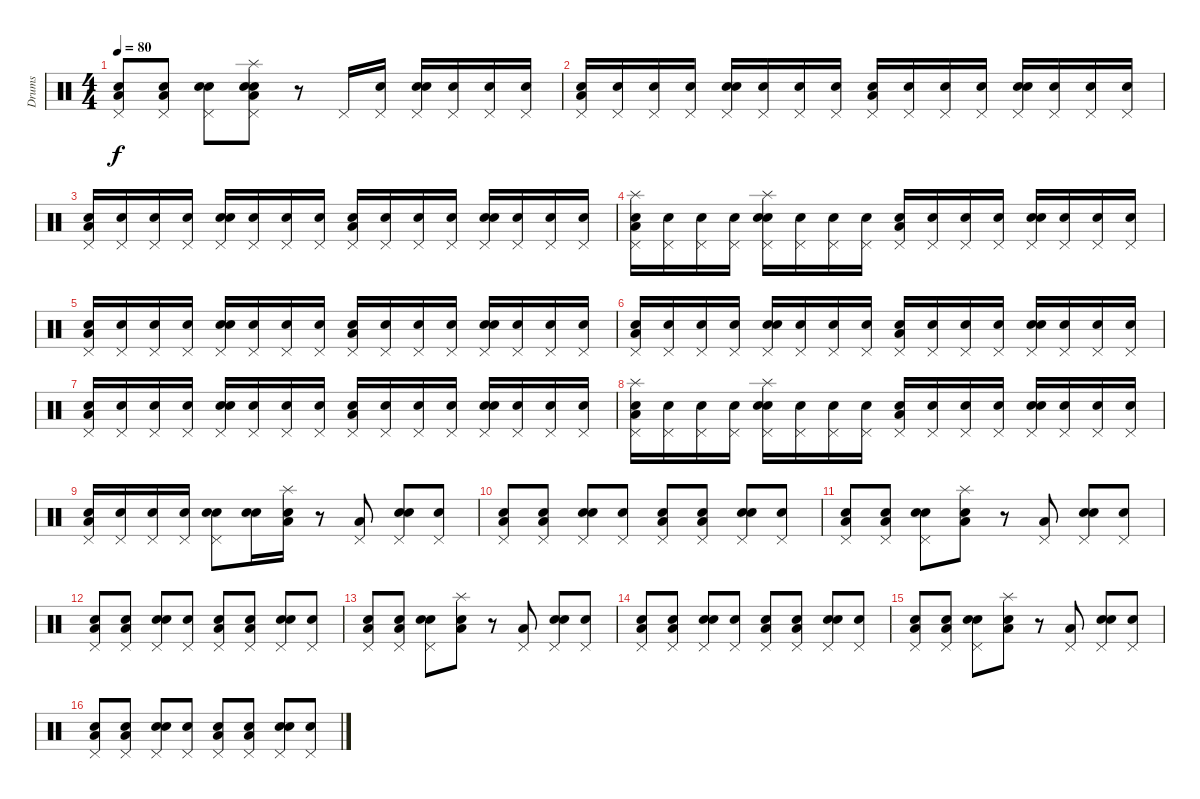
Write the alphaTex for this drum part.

\track ("Drums" "Drums") {instrument percussion}
\staff {score}
\articulation defaults
\ts (4 4)
\tempo 80
\clef neutral
\ks c
("Snare (hit)" "Low Floor Tom (hit)" "Pedal Hi-Hat (hit)").8{dy f} ("Snare (hit)" "Low Floor Tom (hit)" "Pedal Hi-Hat (hit)").8 ("Snare (hit)" "Electric Snare (hit)" "Pedal Hi-Hat (hit)").8 ("Snare (hit)" "Electric Snare (hit)" "Low Floor Tom (hit)" "Pedal Hi-Hat (hit)" "Splash (hit)").8 r.8 "Pedal Hi-Hat (hit)".16 ("Snare (hit)" "Pedal Hi-Hat (hit)").16 ("Snare (hit)" "Electric Snare (hit)" "Pedal Hi-Hat (hit)").16 ("Snare (hit)" "Pedal Hi-Hat (hit)").16 ("Snare (hit)" "Pedal Hi-Hat (hit)").16 ("Snare (hit)" "Pedal Hi-Hat (hit)").16 |
("Snare (hit)" "Low Floor Tom (hit)" "Pedal Hi-Hat (hit)").16 ("Snare (hit)" "Pedal Hi-Hat (hit)").16 ("Snare (hit)" "Pedal Hi-Hat (hit)").16 ("Snare (hit)" "Pedal Hi-Hat (hit)").16 ("Snare (hit)" "Electric Snare (hit)" "Pedal Hi-Hat (hit)").16 ("Snare (hit)" "Pedal Hi-Hat (hit)").16 ("Snare (hit)" "Pedal Hi-Hat (hit)").16 ("Snare (hit)" "Pedal Hi-Hat (hit)").16 ("Snare (hit)" "Low Floor Tom (hit)" "Pedal Hi-Hat (hit)").16 ("Snare (hit)" "Pedal Hi-Hat (hit)").16 ("Snare (hit)" "Pedal Hi-Hat (hit)").16 ("Snare (hit)" "Pedal Hi-Hat (hit)").16 ("Snare (hit)" "Electric Snare (hit)" "Pedal Hi-Hat (hit)").16 ("Snare (hit)" "Pedal Hi-Hat (hit)").16 ("Snare (hit)" "Pedal Hi-Hat (hit)").16 ("Snare (hit)" "Pedal Hi-Hat (hit)").16 |
("Snare (hit)" "Low Floor Tom (hit)" "Pedal Hi-Hat (hit)").16 ("Snare (hit)" "Pedal Hi-Hat (hit)").16 ("Snare (hit)" "Pedal Hi-Hat (hit)").16 ("Snare (hit)" "Pedal Hi-Hat (hit)").16 ("Snare (hit)" "Electric Snare (hit)" "Pedal Hi-Hat (hit)").16 ("Snare (hit)" "Pedal Hi-Hat (hit)").16 ("Snare (hit)" "Pedal Hi-Hat (hit)").16 ("Snare (hit)" "Pedal Hi-Hat (hit)").16 ("Snare (hit)" "Low Floor Tom (hit)" "Pedal Hi-Hat (hit)").16 ("Snare (hit)" "Pedal Hi-Hat (hit)").16 ("Snare (hit)" "Pedal Hi-Hat (hit)").16 ("Snare (hit)" "Pedal Hi-Hat (hit)").16 ("Snare (hit)" "Electric Snare (hit)" "Pedal Hi-Hat (hit)").16 ("Snare (hit)" "Pedal Hi-Hat (hit)").16 ("Snare (hit)" "Pedal Hi-Hat (hit)").16 ("Snare (hit)" "Pedal Hi-Hat (hit)").16 |
("Snare (hit)" "Low Floor Tom (hit)" "Pedal Hi-Hat (hit)" "Splash (hit)").16 ("Snare (hit)" "Pedal Hi-Hat (hit)").16 ("Snare (hit)" "Pedal Hi-Hat (hit)").16 ("Snare (hit)" "Pedal Hi-Hat (hit)").16 ("Snare (hit)" "Electric Snare (hit)" "Pedal Hi-Hat (hit)" "Splash (hit)").16 ("Snare (hit)" "Pedal Hi-Hat (hit)").16 ("Snare (hit)" "Pedal Hi-Hat (hit)").16 ("Snare (hit)" "Pedal Hi-Hat (hit)").16 ("Snare (hit)" "Low Floor Tom (hit)" "Pedal Hi-Hat (hit)").16 ("Snare (hit)" "Pedal Hi-Hat (hit)").16 ("Snare (hit)" "Pedal Hi-Hat (hit)").16 ("Snare (hit)" "Pedal Hi-Hat (hit)").16 ("Snare (hit)" "Electric Snare (hit)" "Pedal Hi-Hat (hit)").16 ("Snare (hit)" "Pedal Hi-Hat (hit)").16 ("Snare (hit)" "Pedal Hi-Hat (hit)").16 ("Snare (hit)" "Pedal Hi-Hat (hit)").16 |
("Snare (hit)" "Low Floor Tom (hit)" "Pedal Hi-Hat (hit)").16 ("Snare (hit)" "Pedal Hi-Hat (hit)").16 ("Snare (hit)" "Pedal Hi-Hat (hit)").16 ("Snare (hit)" "Pedal Hi-Hat (hit)").16 ("Snare (hit)" "Electric Snare (hit)" "Pedal Hi-Hat (hit)").16 ("Snare (hit)" "Pedal Hi-Hat (hit)").16 ("Snare (hit)" "Pedal Hi-Hat (hit)").16 ("Snare (hit)" "Pedal Hi-Hat (hit)").16 ("Snare (hit)" "Low Floor Tom (hit)" "Pedal Hi-Hat (hit)").16 ("Snare (hit)" "Pedal Hi-Hat (hit)").16 ("Snare (hit)" "Pedal Hi-Hat (hit)").16 ("Snare (hit)" "Pedal Hi-Hat (hit)").16 ("Snare (hit)" "Electric Snare (hit)" "Pedal Hi-Hat (hit)").16 ("Snare (hit)" "Pedal Hi-Hat (hit)").16 ("Snare (hit)" "Pedal Hi-Hat (hit)").16 ("Snare (hit)" "Pedal Hi-Hat (hit)").16 |
("Snare (hit)" "Low Floor Tom (hit)" "Pedal Hi-Hat (hit)").16 ("Snare (hit)" "Pedal Hi-Hat (hit)").16 ("Snare (hit)" "Pedal Hi-Hat (hit)").16 ("Snare (hit)" "Pedal Hi-Hat (hit)").16 ("Snare (hit)" "Electric Snare (hit)" "Pedal Hi-Hat (hit)").16 ("Snare (hit)" "Pedal Hi-Hat (hit)").16 ("Snare (hit)" "Pedal Hi-Hat (hit)").16 ("Snare (hit)" "Pedal Hi-Hat (hit)").16 ("Snare (hit)" "Low Floor Tom (hit)" "Pedal Hi-Hat (hit)").16 ("Snare (hit)" "Pedal Hi-Hat (hit)").16 ("Snare (hit)" "Pedal Hi-Hat (hit)").16 ("Snare (hit)" "Pedal Hi-Hat (hit)").16 ("Snare (hit)" "Electric Snare (hit)" "Pedal Hi-Hat (hit)").16 ("Snare (hit)" "Pedal Hi-Hat (hit)").16 ("Snare (hit)" "Pedal Hi-Hat (hit)").16 ("Snare (hit)" "Pedal Hi-Hat (hit)").16 |
("Snare (hit)" "Low Floor Tom (hit)" "Pedal Hi-Hat (hit)").16 ("Snare (hit)" "Pedal Hi-Hat (hit)").16 ("Snare (hit)" "Pedal Hi-Hat (hit)").16 ("Snare (hit)" "Pedal Hi-Hat (hit)").16 ("Snare (hit)" "Electric Snare (hit)" "Pedal Hi-Hat (hit)").16 ("Snare (hit)" "Pedal Hi-Hat (hit)").16 ("Snare (hit)" "Pedal Hi-Hat (hit)").16 ("Snare (hit)" "Pedal Hi-Hat (hit)").16 ("Snare (hit)" "Low Floor Tom (hit)" "Pedal Hi-Hat (hit)").16 ("Snare (hit)" "Pedal Hi-Hat (hit)").16 ("Snare (hit)" "Pedal Hi-Hat (hit)").16 ("Snare (hit)" "Pedal Hi-Hat (hit)").16 ("Snare (hit)" "Electric Snare (hit)" "Pedal Hi-Hat (hit)").16 ("Snare (hit)" "Pedal Hi-Hat (hit)").16 ("Snare (hit)" "Pedal Hi-Hat (hit)").16 ("Snare (hit)" "Pedal Hi-Hat (hit)").16 |
("Snare (hit)" "Low Floor Tom (hit)" "Pedal Hi-Hat (hit)" "Splash (hit)").16 ("Snare (hit)" "Pedal Hi-Hat (hit)").16 ("Snare (hit)" "Pedal Hi-Hat (hit)").16 ("Snare (hit)" "Pedal Hi-Hat (hit)").16 ("Snare (hit)" "Electric Snare (hit)" "Pedal Hi-Hat (hit)" "Splash (hit)").16 ("Snare (hit)" "Pedal Hi-Hat (hit)").16 ("Snare (hit)" "Pedal Hi-Hat (hit)").16 ("Snare (hit)" "Pedal Hi-Hat (hit)").16 ("Snare (hit)" "Low Floor Tom (hit)" "Pedal Hi-Hat (hit)").16 ("Snare (hit)" "Pedal Hi-Hat (hit)").16 ("Snare (hit)" "Pedal Hi-Hat (hit)").16 ("Snare (hit)" "Pedal Hi-Hat (hit)").16 ("Snare (hit)" "Electric Snare (hit)" "Pedal Hi-Hat (hit)").16 ("Snare (hit)" "Pedal Hi-Hat (hit)").16 ("Snare (hit)" "Pedal Hi-Hat (hit)").16 ("Snare (hit)" "Pedal Hi-Hat (hit)").16 |
("Snare (hit)" "Low Floor Tom (hit)" "Pedal Hi-Hat (hit)").16 ("Snare (hit)" "Pedal Hi-Hat (hit)").16 ("Snare (hit)" "Pedal Hi-Hat (hit)").16 ("Snare (hit)" "Pedal Hi-Hat (hit)").16 ("Snare (hit)" "Electric Snare (hit)" "Pedal Hi-Hat (hit)").8 ("Snare (hit)" "Electric Snare (hit)").16 ("Snare (hit)" "Low Floor Tom (hit)" "Splash (hit)").16 r.8 ("Low Floor Tom (hit)" "Pedal Hi-Hat (hit)").8 ("Snare (hit)" "Electric Snare (hit)" "Pedal Hi-Hat (hit)").8 ("Snare (hit)" "Pedal Hi-Hat (hit)").8 |
("Snare (hit)" "Low Floor Tom (hit)" "Pedal Hi-Hat (hit)").8 ("Snare (hit)" "Low Floor Tom (hit)" "Pedal Hi-Hat (hit)").8 ("Snare (hit)" "Electric Snare (hit)" "Pedal Hi-Hat (hit)").8 ("Snare (hit)" "Pedal Hi-Hat (hit)").8 ("Snare (hit)" "Low Floor Tom (hit)" "Pedal Hi-Hat (hit)").8 ("Snare (hit)" "Low Floor Tom (hit)" "Pedal Hi-Hat (hit)").8 ("Snare (hit)" "Electric Snare (hit)" "Pedal Hi-Hat (hit)").8 ("Snare (hit)" "Pedal Hi-Hat (hit)").8 |
("Snare (hit)" "Low Floor Tom (hit)" "Pedal Hi-Hat (hit)").8 ("Snare (hit)" "Low Floor Tom (hit)" "Pedal Hi-Hat (hit)").8 ("Snare (hit)" "Electric Snare (hit)" "Pedal Hi-Hat (hit)").8 ("Snare (hit)" "Low Floor Tom (hit)" "Splash (hit)").8 r.8 ("Low Floor Tom (hit)" "Pedal Hi-Hat (hit)").8 ("Snare (hit)" "Electric Snare (hit)" "Pedal Hi-Hat (hit)").8 ("Snare (hit)" "Pedal Hi-Hat (hit)").8 |
("Snare (hit)" "Low Floor Tom (hit)" "Pedal Hi-Hat (hit)").8 ("Snare (hit)" "Low Floor Tom (hit)" "Pedal Hi-Hat (hit)").8 ("Snare (hit)" "Electric Snare (hit)" "Pedal Hi-Hat (hit)").8 ("Snare (hit)" "Pedal Hi-Hat (hit)").8 ("Snare (hit)" "Low Floor Tom (hit)" "Pedal Hi-Hat (hit)").8 ("Snare (hit)" "Low Floor Tom (hit)" "Pedal Hi-Hat (hit)").8 ("Snare (hit)" "Electric Snare (hit)" "Pedal Hi-Hat (hit)").8 ("Snare (hit)" "Pedal Hi-Hat (hit)").8 |
("Snare (hit)" "Low Floor Tom (hit)" "Pedal Hi-Hat (hit)").8 ("Snare (hit)" "Low Floor Tom (hit)" "Pedal Hi-Hat (hit)").8 ("Snare (hit)" "Electric Snare (hit)" "Pedal Hi-Hat (hit)").8 ("Snare (hit)" "Low Floor Tom (hit)" "Splash (hit)").8 r.8 ("Low Floor Tom (hit)" "Pedal Hi-Hat (hit)").8 ("Snare (hit)" "Electric Snare (hit)" "Pedal Hi-Hat (hit)").8 ("Snare (hit)" "Pedal Hi-Hat (hit)").8 |
("Snare (hit)" "Low Floor Tom (hit)" "Pedal Hi-Hat (hit)").8 ("Snare (hit)" "Low Floor Tom (hit)" "Pedal Hi-Hat (hit)").8 ("Snare (hit)" "Electric Snare (hit)" "Pedal Hi-Hat (hit)").8 ("Snare (hit)" "Pedal Hi-Hat (hit)").8 ("Snare (hit)" "Low Floor Tom (hit)" "Pedal Hi-Hat (hit)").8 ("Snare (hit)" "Low Floor Tom (hit)" "Pedal Hi-Hat (hit)").8 ("Snare (hit)" "Electric Snare (hit)" "Pedal Hi-Hat (hit)").8 ("Snare (hit)" "Pedal Hi-Hat (hit)").8 |
("Snare (hit)" "Low Floor Tom (hit)" "Pedal Hi-Hat (hit)").8 ("Snare (hit)" "Low Floor Tom (hit)" "Pedal Hi-Hat (hit)").8 ("Snare (hit)" "Electric Snare (hit)" "Pedal Hi-Hat (hit)").8 ("Snare (hit)" "Low Floor Tom (hit)" "Splash (hit)").8 r.8 ("Low Floor Tom (hit)" "Pedal Hi-Hat (hit)").8 ("Snare (hit)" "Electric Snare (hit)" "Pedal Hi-Hat (hit)").8 ("Snare (hit)" "Pedal Hi-Hat (hit)").8 |
("Snare (hit)" "Low Floor Tom (hit)" "Pedal Hi-Hat (hit)").8 ("Snare (hit)" "Low Floor Tom (hit)" "Pedal Hi-Hat (hit)").8 ("Snare (hit)" "Electric Snare (hit)" "Pedal Hi-Hat (hit)").8 ("Snare (hit)" "Pedal Hi-Hat (hit)").8 ("Snare (hit)" "Low Floor Tom (hit)" "Pedal Hi-Hat (hit)").8 ("Snare (hit)" "Low Floor Tom (hit)" "Pedal Hi-Hat (hit)").8 ("Snare (hit)" "Electric Snare (hit)" "Pedal Hi-Hat (hit)").8 ("Snare (hit)" "Pedal Hi-Hat (hit)").8
